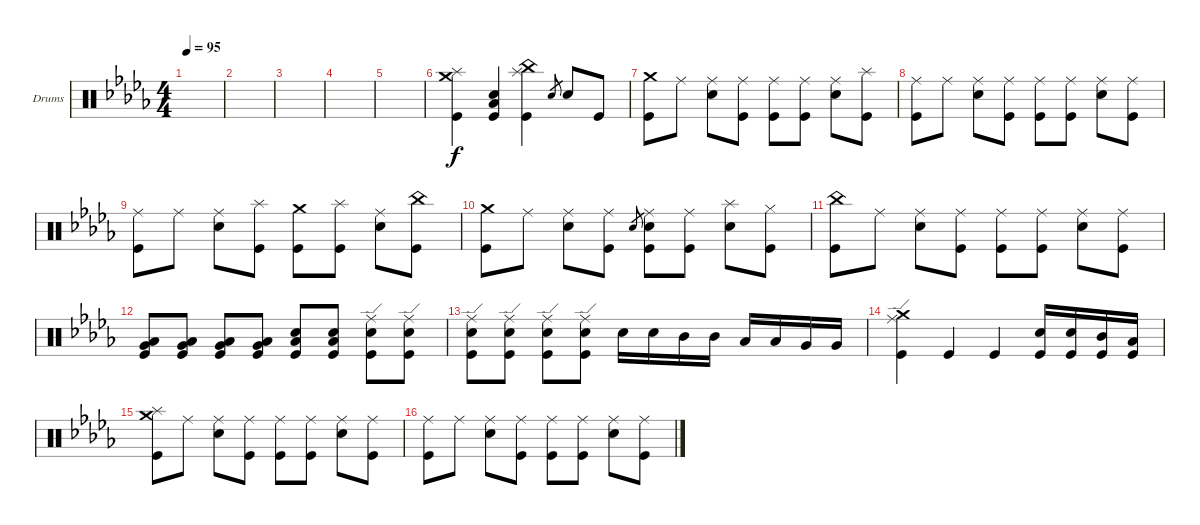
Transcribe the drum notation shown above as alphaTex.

\bracketExtendMode groupsimilarinstruments
\firstSystemTrackNameOrientation horizontal
\otherSystemsTrackNameOrientation horizontal
\track ("Drumkit" "Drums") {instrument percussion}
\staff {score}
\articulation defaults
\ts (4 4)
\tempo 95
\clef neutral
\scale
0.333333
\ks bbminor
|
\scale
0.333333 |
\scale
0.333333 |
\scale
0.333333 |
\scale
0.333333 |
\scale
0.333333 ("Kick (hit)" "Crash medium (hit)" "Splash (hit)").4 ("Kick (hit)" "Snare (hit) 2" "Low Tom (hit)").4 ("Kick (hit)" "China (hit)" "Splash (hit)").4 "Snare (hit) 2".8{gr} "Snare (hit) 2".8 "Kick (hit)".8 |
\scale
0.333333 ("Crash medium (hit)" "Kick (hit)").8 "Ride (middle)".8 ("Ride (middle)" "Snare (hit) 2").8 ("Ride (middle)" "Kick (hit)").8 ("Ride (middle)" "Kick (hit)").8 ("Ride (middle)" "Kick (hit)").8 ("Ride (middle)" "Snare (hit) 2").8 ("Kick (hit)" "Splash (hit)").8 |
\scale
0.333333 ("Kick (hit)" "Ride (middle)").8 "Ride (middle)".8 ("Ride (middle)" "Snare (hit) 2").8 ("Ride (middle)" "Kick (hit)").8 ("Ride (middle)" "Kick (hit)").8 ("Ride (middle)" "Kick (hit)").8 ("Ride (middle)" "Snare (hit) 2").8 ("Ride (middle)" "Kick (hit)").8 |
\scale
0.333333 ("Kick (hit)" "Ride (middle)").8 "Ride (middle)".8 ("Ride (middle)" "Snare (hit) 2").8 ("Kick (hit)" "Splash (hit)").8 ("Kick (hit)" "Crash medium (hit)").8 ("Kick (hit)" "Splash (hit)").8 ("Ride (middle)" "Snare (hit) 2").8 ("Kick (hit)" "China (hit)").8 |
\scale
0.333333 ("Crash medium (hit)" "Kick (hit)").8 "Ride (middle)".8 ("Ride (middle)" "Snare (hit) 2").8 ("Ride (middle)" "Kick (hit)").8 "Snare (hit) 2".8{gr} ("Snare (hit) 2" "Ride (middle)" "Kick (hit)").8 ("Ride (middle)" "Kick (hit)").8 ("Snare (hit) 2" "Splash (hit)").8 ("Kick (hit)" "Hi-Hat (closed)").8 |
\scale
0.333333 ("Kick (hit)" "China (hit)").8 "Ride (middle)".8 ("Ride (middle)" "Snare (hit) 2").8 ("Ride (middle)" "Kick (hit)").8 ("Ride (middle)" "Kick (hit)").8 ("Ride (middle)" "Kick (hit)").8 ("Ride (middle)" "Snare (hit) 2").8 ("Ride (middle)" "Kick (hit)").8 |
\scale
0.333333 ("Low Tom (hit)" "Very Low Tom (hit)" "Kick (hit)").8 ("Low Tom (hit)" "Very Low Tom (hit)" "Kick (hit)").8 ("Low Tom (hit)" "Very Low Tom (hit)" "Kick (hit)").8 ("Low Tom (hit)" "Very Low Tom (hit)" "Kick (hit)").8 ("Low Tom (hit)" "Kick (hit)" "Snare (hit) 2").8 ("Low Tom (hit)" "Kick (hit)" "Snare (hit) 2").8 ("Kick (hit)" "Ride (edge)" "Snare (hit) 2").8 ("Kick (hit)" "Ride (edge)" "Snare (hit) 2").8 |
\scale
0.333333 ("Kick (hit)" "Snare (hit) 2" "Ride (edge)").8 ("Kick (hit)" "Ride (edge)" "Snare (hit) 2").8 ("Kick (hit)" "Ride (edge)" "Snare (hit) 2").8 ("Kick (hit)" "Ride (edge)" "Snare (hit) 2").8 "Snare (hit) 2".16 "Snare (hit) 2".16 "Mid Tom (hit)".16 "Mid Tom (hit)".16 "Low Tom (hit)".16 "Low Tom (hit)".16 "Very Low Tom (hit)".16 "Very Low Tom (hit)".16 |
\scale
0.333333 ("Crash medium (hit)" "Ride (edge)" "Kick (hit)").4 "Kick (hit)".4 "Kick (hit)".4 ("Kick (hit)" "Snare (hit) 2").16 ("Kick (hit)" "Snare (hit) 2").16 ("Kick (hit)" "Mid Tom (hit)").16 ("Kick (hit)" "Low Tom (hit)").16 |
\scale
0.333333 ("Crash medium (hit)" "Kick (hit)" "Splash (hit)").8 "Ride (middle)".8 ("Ride (middle)" "Snare (hit) 2").8 ("Ride (middle)" "Kick (hit)").8 ("Ride (middle)" "Kick (hit)").8 ("Ride (middle)" "Kick (hit)").8 ("Ride (middle)" "Snare (hit) 2").8 ("Kick (hit)" "Ride (middle)").8 |
\scale
0.333333 ("Kick (hit)" "Ride (middle)").8 "Ride (middle)".8 ("Ride (middle)" "Snare (hit) 2").8 ("Ride (middle)" "Kick (hit)").8 ("Ride (middle)" "Kick (hit)").8 ("Ride (middle)" "Kick (hit)").8 ("Ride (middle)" "Snare (hit) 2").8 ("Kick (hit)" "Ride (middle)").8
